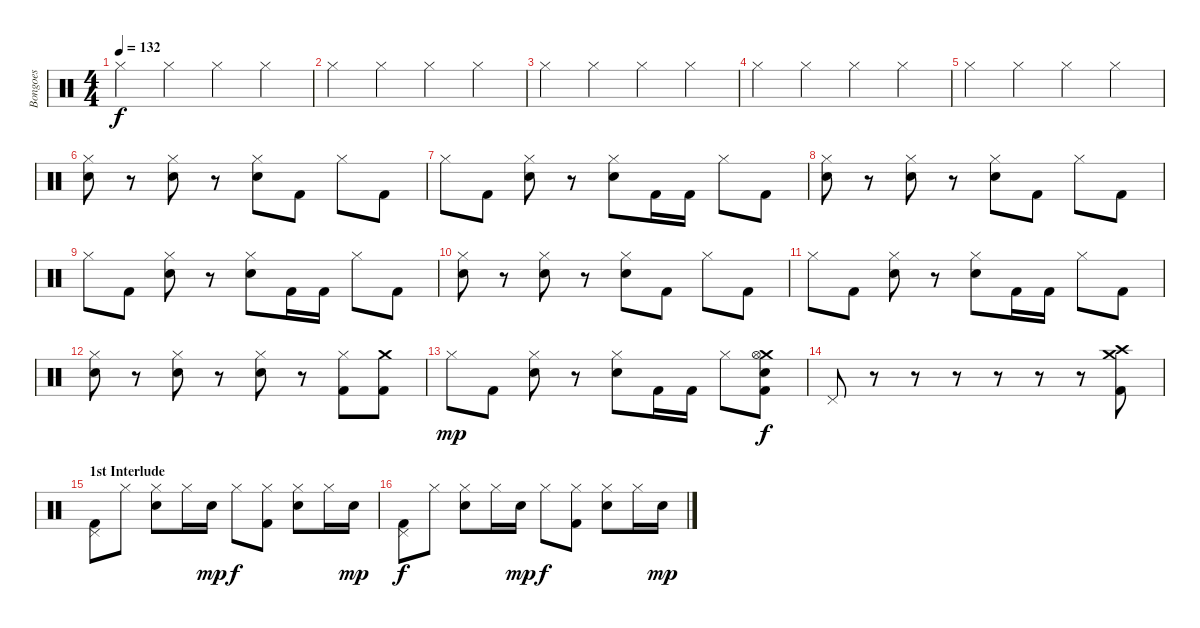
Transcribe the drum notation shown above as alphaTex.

\track ("Bongoes" "Bongoes") {instrument percussion}
\staff {score}
\articulation defaults
\ts (4 4)
\tempo 132
\clef neutral
\ks c "Hi-Hat (closed)".4{dy f} "Hi-Hat (closed)".4 "Hi-Hat (closed)".4 "Hi-Hat (closed)".4
|
"Hi-Hat (closed)".4 "Hi-Hat (closed)".4 "Hi-Hat (closed)".4 "Hi-Hat (closed)".4 |
"Hi-Hat (closed)".4 "Hi-Hat (closed)".4 "Hi-Hat (closed)".4 "Hi-Hat (closed)".4 |
"Hi-Hat (closed)".4 "Hi-Hat (closed)".4 "Hi-Hat (closed)".4 "Hi-Hat (closed)".4 |
"Hi-Hat (closed)".4 "Hi-Hat (closed)".4 "Hi-Hat (closed)".4 "Hi-Hat (closed)".4 |
("Hi-Hat (closed)" "Snare (hit) 2").8 r.8 ("Hi-Hat (closed)" "Snare (hit) 2").8 r.8 ("Hi-Hat (closed)" "Snare (hit) 2").8 "Kick (hit) 2".8 "Hi-Hat (closed)".8 "Kick (hit) 2".8 |
"Hi-Hat (closed)".8 "Kick (hit) 2".8 ("Hi-Hat (closed)" "Snare (hit) 2").8 r.8 ("Hi-Hat (closed)" "Snare (hit) 2").8 "Kick (hit) 2".16 "Kick (hit) 2".16 "Hi-Hat (closed)".8 "Kick (hit) 2".8 |
("Hi-Hat (closed)" "Snare (hit) 2").8 r.8 ("Hi-Hat (closed)" "Snare (hit) 2").8 r.8 ("Hi-Hat (closed)" "Snare (hit) 2").8 "Kick (hit) 2".8 "Hi-Hat (closed)".8 "Kick (hit) 2".8 |
"Hi-Hat (closed)".8 "Kick (hit) 2".8 ("Hi-Hat (closed)" "Snare (hit) 2").8 r.8 ("Hi-Hat (closed)" "Snare (hit) 2").8 "Kick (hit) 2".16 "Kick (hit) 2".16 "Hi-Hat (closed)".8 "Kick (hit) 2".8 |
("Hi-Hat (closed)" "Snare (hit) 2").8 r.8 ("Hi-Hat (closed)" "Snare (hit) 2").8 r.8 ("Hi-Hat (closed)" "Snare (hit) 2").8 "Kick (hit) 2".8 "Hi-Hat (closed)".8 "Kick (hit) 2".8 |
"Hi-Hat (closed)".8 "Kick (hit) 2".8 ("Hi-Hat (closed)" "Snare (hit) 2").8 r.8 ("Hi-Hat (closed)" "Snare (hit) 2").8 "Kick (hit) 2".16 "Kick (hit) 2".16 "Hi-Hat (closed)".8 "Kick (hit) 2".8 |
("Hi-Hat (closed)" "Snare (hit) 2").8 r.8 ("Hi-Hat (closed)" "Snare (hit) 2").8 r.8 ("Hi-Hat (closed)" "Snare (hit) 2").8 r.8 ("Hi-Hat (closed)" "Kick (hit) 2").8 ("Crash medium (hit)" "Kick (hit) 2").8 |
"Hi-Hat (closed)".8{dy mp} "Kick (hit) 2".8 ("Hi-Hat (closed)" "Snare (hit) 2").8 r.8 ("Hi-Hat (closed)" "Snare (hit) 2").8 "Kick (hit) 2".16 "Kick (hit) 2".16 "Hi-Hat (closed)".8 ("Crash medium (hit)" "Kick (hit) 2" "Snare (hit) 2" "Hi-Hat (open)").8{dy f} |
"Pedal Hi-Hat (hit)".8 r.8 r.8 r.8 r.8 r.8 r.8 ("Kick (hit) 2" "Crash high (hit)" "Crash medium (hit)").8 |
\section ("" "1st Interlude")
("Kick (hit) 2" "Pedal Hi-Hat (hit)").8 "Hi-Hat (closed)".8 ("Snare (hit) 2" "Hi-Hat (closed)").8 "Hi-Hat (closed)".16 "Snare (hit) 2".16{dy mp} "Hi-Hat (closed)".8{dy f} ("Kick (hit) 2" "Hi-Hat (closed)").8 ("Snare (hit) 2" "Hi-Hat (closed)").8 "Hi-Hat (closed)".16 "Snare (hit) 2".16{dy mp} |
("Kick (hit) 2" "Pedal Hi-Hat (hit)").8{dy f} "Hi-Hat (closed)".8 ("Snare (hit) 2" "Hi-Hat (closed)").8 "Hi-Hat (closed)".16 "Snare (hit) 2".16{dy mp} "Hi-Hat (closed)".8{dy f} ("Kick (hit) 2" "Hi-Hat (closed)").8 ("Snare (hit) 2" "Hi-Hat (closed)").8 "Hi-Hat (closed)".16 "Snare (hit) 2".16{dy mp}
